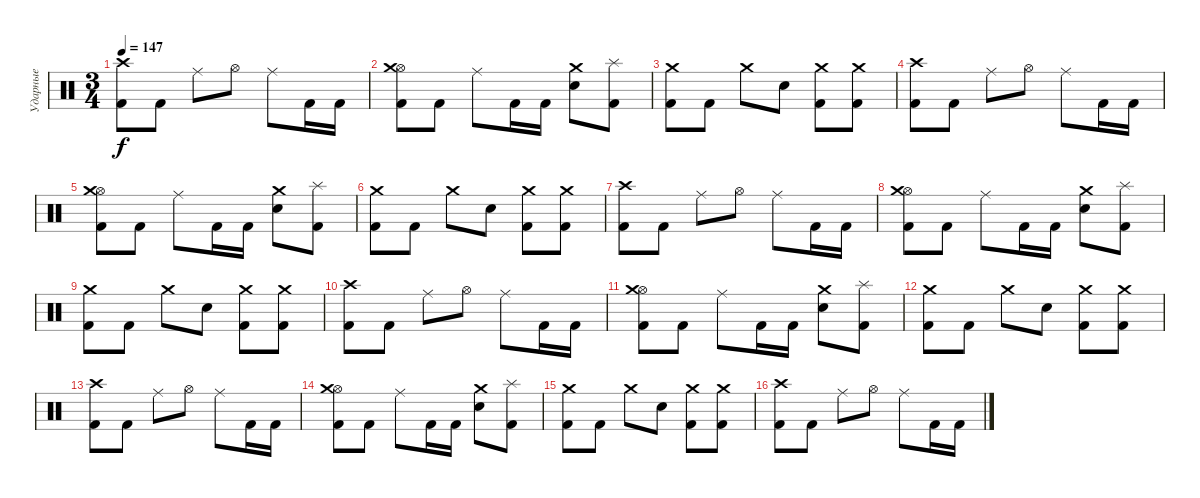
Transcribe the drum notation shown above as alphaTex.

\track ("Ударные" "Ударные") {instrument percussion}
\staff {score}
\articulation defaults
\ts (3 4)
\tempo 147
\clef neutral
\ks c
("Crash high (hit)" "Kick (hit) 2").8{dy f} "Kick (hit) 2".8 "Ride (middle)".8 "Hi-Hat (open)".8 "Ride (middle)".8 "Kick (hit) 2".16 "Kick (hit) 2".16 |
("Hi-Hat (open)" "Crash medium (hit)" "Kick (hit) 2").8 "Kick (hit) 2".8 "Ride (middle)".8 "Kick (hit) 2".16 "Kick (hit) 2".16 ("Crash medium (hit)" "Electric Snare (hit)").8 ("Splash (hit)" "Kick (hit) 2").8 |
("Crash medium (hit)" "Kick (hit) 2").8 "Kick (hit) 2".8 "Crash medium (hit)".8 "Electric Snare (hit)".8 ("Crash medium (hit)" "Kick (hit) 2").8 ("Crash medium (hit)" "Kick (hit) 2").8 |
("Crash high (hit)" "Kick (hit) 2").8 "Kick (hit) 2".8 "Ride (middle)".8 "Hi-Hat (open)".8 "Ride (middle)".8 "Kick (hit) 2".16 "Kick (hit) 2".16 |
("Hi-Hat (open)" "Crash medium (hit)" "Kick (hit) 2").8 "Kick (hit) 2".8 "Ride (middle)".8 "Kick (hit) 2".16 "Kick (hit) 2".16 ("Crash medium (hit)" "Electric Snare (hit)").8 ("Splash (hit)" "Kick (hit) 2").8 |
("Crash medium (hit)" "Kick (hit) 2").8 "Kick (hit) 2".8 "Crash medium (hit)".8 "Electric Snare (hit)".8 ("Crash medium (hit)" "Kick (hit) 2").8 ("Crash medium (hit)" "Kick (hit) 2").8 |
("Crash high (hit)" "Kick (hit) 2").8 "Kick (hit) 2".8 "Ride (middle)".8 "Hi-Hat (open)".8 "Ride (middle)".8 "Kick (hit) 2".16 "Kick (hit) 2".16 |
("Hi-Hat (open)" "Crash medium (hit)" "Kick (hit) 2").8 "Kick (hit) 2".8 "Ride (middle)".8 "Kick (hit) 2".16 "Kick (hit) 2".16 ("Crash medium (hit)" "Electric Snare (hit)").8 ("Splash (hit)" "Kick (hit) 2").8 |
("Crash medium (hit)" "Kick (hit) 2").8 "Kick (hit) 2".8 "Crash medium (hit)".8 "Electric Snare (hit)".8 ("Crash medium (hit)" "Kick (hit) 2").8 ("Crash medium (hit)" "Kick (hit) 2").8 |
("Crash high (hit)" "Kick (hit) 2").8 "Kick (hit) 2".8 "Ride (middle)".8 "Hi-Hat (open)".8 "Ride (middle)".8 "Kick (hit) 2".16 "Kick (hit) 2".16 |
("Hi-Hat (open)" "Crash medium (hit)" "Kick (hit) 2").8 "Kick (hit) 2".8 "Ride (middle)".8 "Kick (hit) 2".16 "Kick (hit) 2".16 ("Crash medium (hit)" "Electric Snare (hit)").8 ("Splash (hit)" "Kick (hit) 2").8 |
("Crash medium (hit)" "Kick (hit) 2").8 "Kick (hit) 2".8 "Crash medium (hit)".8 "Electric Snare (hit)".8 ("Crash medium (hit)" "Kick (hit) 2").8 ("Crash medium (hit)" "Kick (hit) 2").8 |
("Crash high (hit)" "Kick (hit) 2").8 "Kick (hit) 2".8 "Ride (middle)".8 "Hi-Hat (open)".8 "Ride (middle)".8 "Kick (hit) 2".16 "Kick (hit) 2".16 |
("Hi-Hat (open)" "Crash medium (hit)" "Kick (hit) 2").8 "Kick (hit) 2".8 "Ride (middle)".8 "Kick (hit) 2".16 "Kick (hit) 2".16 ("Crash medium (hit)" "Electric Snare (hit)").8 ("Splash (hit)" "Kick (hit) 2").8 |
("Crash medium (hit)" "Kick (hit) 2").8 "Kick (hit) 2".8 "Crash medium (hit)".8 "Electric Snare (hit)".8 ("Crash medium (hit)" "Kick (hit) 2").8 ("Crash medium (hit)" "Kick (hit) 2").8 |
("Crash high (hit)" "Kick (hit) 2").8 "Kick (hit) 2".8 "Ride (middle)".8 "Hi-Hat (open)".8 "Ride (middle)".8 "Kick (hit) 2".16 "Kick (hit) 2".16
